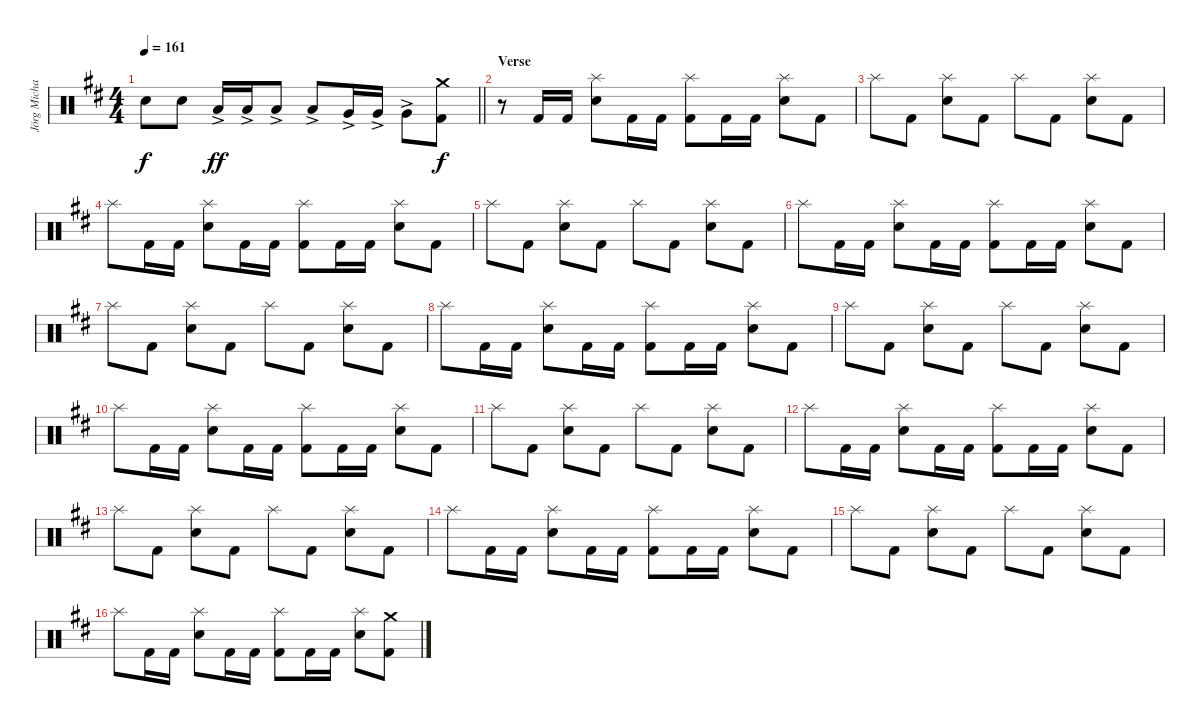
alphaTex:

\track ("Jörg Michael" "Jörg Micha") {instrument percussion}
\staff {score}
\articulation defaults
\ts (4 4)
\tempo 161
\clef neutral
\barLineRight lightlight
\ks bminor "Snare (hit) 2".8{dy f} "Snare (hit) 2".8 "Low Tom (hit)"{ac}.16{dy ff} "Low Tom (hit)"{ac}.16 "Low Tom (hit)"{ac}.8 "Low Tom (hit)"{ac}.8 "Very Low Tom (hit)"{ac}.16 "Very Low Tom (hit)"{ac}.16 "Very Low Tom (hit)"{ac}.8
("Crash medium (hit)" "Kick (hit) 2").8{dy f} |
\section ("" "Verse")
r.8 "Kick (hit) 2".16 "Kick (hit) 2".16 ("Splash (hit)" "Snare (hit) 2").8 "Kick (hit) 2".16 "Kick (hit) 2".16 ("Splash (hit)" "Kick (hit) 2").8 "Kick (hit) 2".16 "Kick (hit) 2".16 ("Splash (hit)" "Snare (hit) 2").8 "Kick (hit) 2".8 |
"Splash (hit)".8 "Kick (hit) 2".8 ("Splash (hit)" "Snare (hit) 2").8 "Kick (hit) 2".8 "Splash (hit)".8 "Kick (hit) 2".8 ("Splash (hit)" "Snare (hit) 2").8 "Kick (hit) 2".8 |
"Splash (hit)".8 "Kick (hit) 2".16 "Kick (hit) 2".16 ("Splash (hit)" "Snare (hit) 2").8 "Kick (hit) 2".16 "Kick (hit) 2".16 ("Splash (hit)" "Kick (hit) 2").8 "Kick (hit) 2".16 "Kick (hit) 2".16 ("Splash (hit)" "Snare (hit) 2").8 "Kick (hit) 2".8 |
"Splash (hit)".8 "Kick (hit) 2".8 ("Splash (hit)" "Snare (hit) 2").8 "Kick (hit) 2".8 "Splash (hit)".8 "Kick (hit) 2".8 ("Splash (hit)" "Snare (hit) 2").8 "Kick (hit) 2".8 |
"Splash (hit)".8 "Kick (hit) 2".16 "Kick (hit) 2".16 ("Splash (hit)" "Snare (hit) 2").8 "Kick (hit) 2".16 "Kick (hit) 2".16 ("Splash (hit)" "Kick (hit) 2").8 "Kick (hit) 2".16 "Kick (hit) 2".16 ("Splash (hit)" "Snare (hit) 2").8 "Kick (hit) 2".8 |
"Splash (hit)".8 "Kick (hit) 2".8 ("Splash (hit)" "Snare (hit) 2").8 "Kick (hit) 2".8 "Splash (hit)".8 "Kick (hit) 2".8 ("Splash (hit)" "Snare (hit) 2").8 "Kick (hit) 2".8 |
"Splash (hit)".8 "Kick (hit) 2".16 "Kick (hit) 2".16 ("Splash (hit)" "Snare (hit) 2").8 "Kick (hit) 2".16 "Kick (hit) 2".16 ("Splash (hit)" "Kick (hit) 2").8 "Kick (hit) 2".16 "Kick (hit) 2".16 ("Splash (hit)" "Snare (hit) 2").8 "Kick (hit) 2".8 |
"Splash (hit)".8 "Kick (hit) 2".8 ("Splash (hit)" "Snare (hit) 2").8 "Kick (hit) 2".8 "Splash (hit)".8 "Kick (hit) 2".8 ("Splash (hit)" "Snare (hit) 2").8 "Kick (hit) 2".8 |
"Splash (hit)".8 "Kick (hit) 2".16 "Kick (hit) 2".16 ("Splash (hit)" "Snare (hit) 2").8 "Kick (hit) 2".16 "Kick (hit) 2".16 ("Splash (hit)" "Kick (hit) 2").8 "Kick (hit) 2".16 "Kick (hit) 2".16 ("Splash (hit)" "Snare (hit) 2").8 "Kick (hit) 2".8 |
"Splash (hit)".8 "Kick (hit) 2".8 ("Splash (hit)" "Snare (hit) 2").8 "Kick (hit) 2".8 "Splash (hit)".8 "Kick (hit) 2".8 ("Splash (hit)" "Snare (hit) 2").8 "Kick (hit) 2".8 |
"Splash (hit)".8 "Kick (hit) 2".16 "Kick (hit) 2".16 ("Splash (hit)" "Snare (hit) 2").8 "Kick (hit) 2".16 "Kick (hit) 2".16 ("Splash (hit)" "Kick (hit) 2").8 "Kick (hit) 2".16 "Kick (hit) 2".16 ("Splash (hit)" "Snare (hit) 2").8 "Kick (hit) 2".8 |
"Splash (hit)".8 "Kick (hit) 2".8 ("Splash (hit)" "Snare (hit) 2").8 "Kick (hit) 2".8 "Splash (hit)".8 "Kick (hit) 2".8 ("Splash (hit)" "Snare (hit) 2").8 "Kick (hit) 2".8 |
"Splash (hit)".8 "Kick (hit) 2".16 "Kick (hit) 2".16 ("Splash (hit)" "Snare (hit) 2").8 "Kick (hit) 2".16 "Kick (hit) 2".16 ("Splash (hit)" "Kick (hit) 2").8 "Kick (hit) 2".16 "Kick (hit) 2".16 ("Splash (hit)" "Snare (hit) 2").8 "Kick (hit) 2".8 |
"Splash (hit)".8 "Kick (hit) 2".8 ("Splash (hit)" "Snare (hit) 2").8 "Kick (hit) 2".8 "Splash (hit)".8 "Kick (hit) 2".8 ("Splash (hit)" "Snare (hit) 2").8 "Kick (hit) 2".8 |
"Splash (hit)".8 "Kick (hit) 2".16 "Kick (hit) 2".16 ("Splash (hit)" "Snare (hit) 2").8 "Kick (hit) 2".16 "Kick (hit) 2".16 ("Splash (hit)" "Kick (hit) 2").8 "Kick (hit) 2".16 "Kick (hit) 2".16 ("Splash (hit)" "Snare (hit) 2").8 ("Crash medium (hit)" "Kick (hit) 2").8
